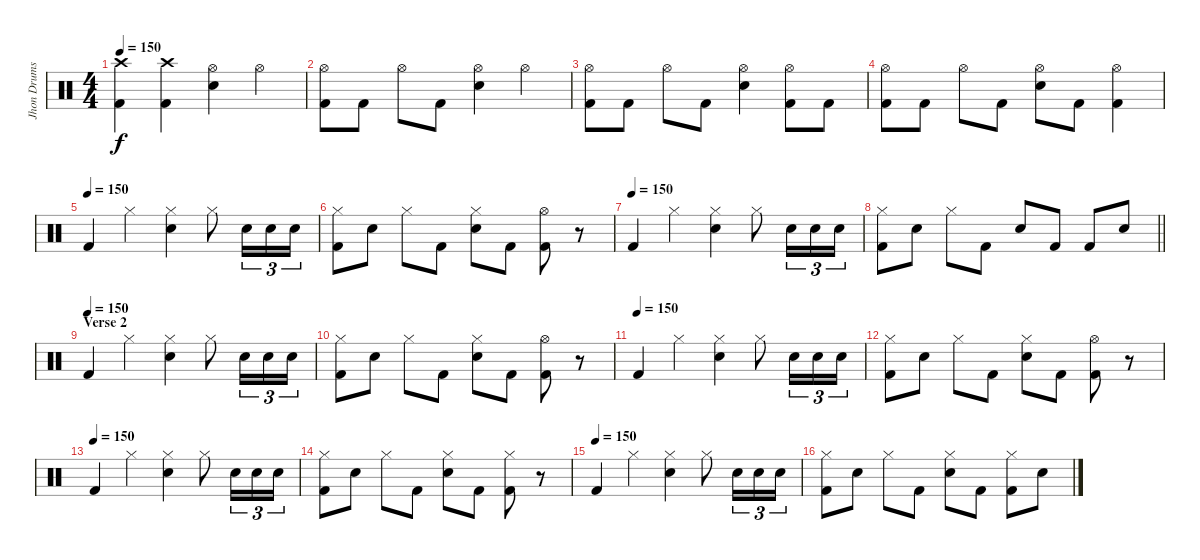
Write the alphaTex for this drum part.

\track ("Jhon Drums" "Jhon Drums") {instrument percussion}
\staff {score}
\articulation defaults
\ts (4 4)
\tempo 150
\clef neutral
\ks c
("Crash high (hit)" "Kick (hit) 2").4{dy f} ("Crash high (hit)" "Kick (hit) 2").4 ("Hi-Hat (open)" "Electric Snare (hit)").4 "Hi-Hat (open)".4 |
("Hi-Hat (open)" "Kick (hit) 2").8 "Kick (hit) 2".8 "Hi-Hat (open)".8 "Kick (hit) 2".8 ("Hi-Hat (open)" "Electric Snare (hit)").4 "Hi-Hat (open)".4 |
("Hi-Hat (open)" "Kick (hit) 2").8 "Kick (hit) 2".8 "Hi-Hat (open)".8 "Kick (hit) 2".8 ("Hi-Hat (open)" "Electric Snare (hit)").4 ("Hi-Hat (open)" "Kick (hit) 2").8 "Kick (hit) 2".8 |
("Hi-Hat (open)" "Kick (hit) 2").8 "Kick (hit) 2".8 "Hi-Hat (open)".8 "Kick (hit) 2".8 ("Hi-Hat (open)" "Electric Snare (hit)").8 "Kick (hit) 2".8 ("Hi-Hat (open)" "Kick (hit) 2").4 |
\tempo (150)
"Kick (hit) 2".4 "Hi-Hat (closed)".4 ("Hi-Hat (closed)" "Electric Snare (hit)").4 "Hi-Hat (closed)".8 "Electric Snare (hit)".16{tu (3 2)} "Electric Snare (hit)".16{tu (3 2)} "Electric Snare (hit)".16{tu (3 2)} |
("Hi-Hat (closed)" "Kick (hit) 2").8 "Electric Snare (hit)".8 "Hi-Hat (closed)".8 "Kick (hit) 2".8 ("Hi-Hat (closed)" "Electric Snare (hit)").8 "Kick (hit) 2".8 ("Hi-Hat (open)" "Kick (hit) 2").8 r.8 |
\tempo (150)
"Kick (hit) 2".4 "Hi-Hat (closed)".4 ("Hi-Hat (closed)" "Electric Snare (hit)").4 "Hi-Hat (closed)".8 "Electric Snare (hit)".16{tu (3 2)} "Electric Snare (hit)".16{tu (3 2)} "Electric Snare (hit)".16{tu (3 2)} |
\barLineRight lightlight
("Hi-Hat (closed)" "Kick (hit) 2").8 "Electric Snare (hit)".8 "Hi-Hat (closed)".8 "Kick (hit) 2".8 "Electric Snare (hit)".8 "Kick (hit) 2".8 "Kick (hit) 2".8 "Electric Snare (hit)".8 |
\section ("" "Verse 2")
\tempo (150)
"Kick (hit) 2".4 "Hi-Hat (closed)".4 ("Hi-Hat (closed)" "Electric Snare (hit)").4 "Hi-Hat (closed)".8 "Electric Snare (hit)".16{tu (3 2)} "Electric Snare (hit)".16{tu (3 2)} "Electric Snare (hit)".16{tu (3 2)} |
("Hi-Hat (closed)" "Kick (hit) 2").8 "Electric Snare (hit)".8 "Hi-Hat (closed)".8 "Kick (hit) 2".8 ("Hi-Hat (closed)" "Electric Snare (hit)").8 "Kick (hit) 2".8 ("Hi-Hat (open)" "Kick (hit) 2").8 r.8 |
\tempo (150)
"Kick (hit) 2".4 "Hi-Hat (closed)".4 ("Hi-Hat (closed)" "Electric Snare (hit)").4 "Hi-Hat (closed)".8 "Electric Snare (hit)".16{tu (3 2)} "Electric Snare (hit)".16{tu (3 2)} "Electric Snare (hit)".16{tu (3 2)} |
("Hi-Hat (closed)" "Kick (hit) 2").8 "Electric Snare (hit)".8 "Hi-Hat (closed)".8 "Kick (hit) 2".8 ("Hi-Hat (closed)" "Electric Snare (hit)").8 "Kick (hit) 2".8 ("Hi-Hat (open)" "Kick (hit) 2").8 r.8 |
\tempo (150)
"Kick (hit) 2".4 "Hi-Hat (closed)".4 ("Hi-Hat (closed)" "Electric Snare (hit)").4 "Hi-Hat (closed)".8 "Electric Snare (hit)".16{tu (3 2)} "Electric Snare (hit)".16{tu (3 2)} "Electric Snare (hit)".16{tu (3 2)} |
("Hi-Hat (closed)" "Kick (hit) 2").8 "Electric Snare (hit)".8 "Hi-Hat (closed)".8 "Kick (hit) 2".8 ("Hi-Hat (closed)" "Electric Snare (hit)").8 "Kick (hit) 2".8 ("Hi-Hat (closed)" "Kick (hit) 2").8 r.8 |
\tempo (150)
"Kick (hit) 2".4 "Hi-Hat (closed)".4 ("Hi-Hat (closed)" "Electric Snare (hit)").4 "Hi-Hat (closed)".8 "Electric Snare (hit)".16{tu (3 2)} "Electric Snare (hit)".16{tu (3 2)} "Electric Snare (hit)".16{tu (3 2)} |
("Hi-Hat (closed)" "Kick (hit) 2").8 "Electric Snare (hit)".8 "Hi-Hat (closed)".8 "Kick (hit) 2".8 ("Hi-Hat (closed)" "Electric Snare (hit)").8 "Kick (hit) 2".8 ("Hi-Hat (closed)" "Kick (hit) 2").8 "Electric Snare (hit)".8
